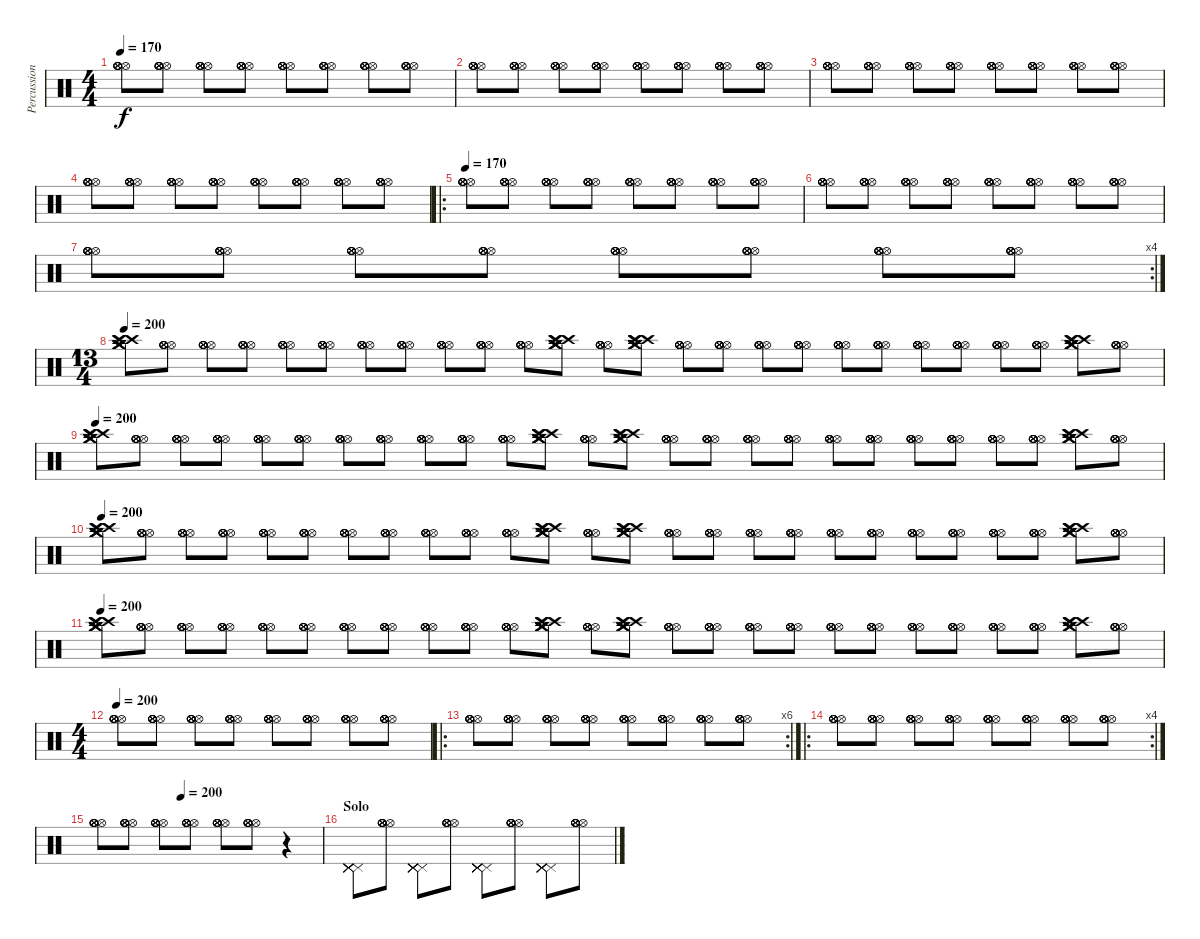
\track ("Percussion" "Percussion") {instrument percussion}
\staff {score}
\articulation defaults
\ts (4 4)
\tempo 170
\clef neutral
\ks c
("Hi-Hat (open)" "Hi-Hat (open)" "Hi-Hat (open)" "Hi-Hat (open)" "Hi-Hat (open)" "Hi-Hat (open)").8{dy f} ("Hi-Hat (open)" "Hi-Hat (open)" "Hi-Hat (open)" "Hi-Hat (open)" "Hi-Hat (open)" "Hi-Hat (open)").8 ("Hi-Hat (open)" "Hi-Hat (open)" "Hi-Hat (open)" "Hi-Hat (open)" "Hi-Hat (open)" "Hi-Hat (open)").8 ("Hi-Hat (open)" "Hi-Hat (open)" "Hi-Hat (open)" "Hi-Hat (open)" "Hi-Hat (open)" "Hi-Hat (open)").8 ("Hi-Hat (open)" "Hi-Hat (open)" "Hi-Hat (open)" "Hi-Hat (open)" "Hi-Hat (open)" "Hi-Hat (open)").8 ("Hi-Hat (open)" "Hi-Hat (open)" "Hi-Hat (open)" "Hi-Hat (open)" "Hi-Hat (open)" "Hi-Hat (open)").8 ("Hi-Hat (open)" "Hi-Hat (open)" "Hi-Hat (open)" "Hi-Hat (open)" "Hi-Hat (open)" "Hi-Hat (open)").8 ("Hi-Hat (open)" "Hi-Hat (open)" "Hi-Hat (open)" "Hi-Hat (open)" "Hi-Hat (open)" "Hi-Hat (open)").8 |
("Hi-Hat (open)" "Hi-Hat (open)" "Hi-Hat (open)" "Hi-Hat (open)" "Hi-Hat (open)" "Hi-Hat (open)").8 ("Hi-Hat (open)" "Hi-Hat (open)" "Hi-Hat (open)" "Hi-Hat (open)" "Hi-Hat (open)" "Hi-Hat (open)").8 ("Hi-Hat (open)" "Hi-Hat (open)" "Hi-Hat (open)" "Hi-Hat (open)" "Hi-Hat (open)" "Hi-Hat (open)").8 ("Hi-Hat (open)" "Hi-Hat (open)" "Hi-Hat (open)" "Hi-Hat (open)" "Hi-Hat (open)" "Hi-Hat (open)").8 ("Hi-Hat (open)" "Hi-Hat (open)" "Hi-Hat (open)" "Hi-Hat (open)" "Hi-Hat (open)" "Hi-Hat (open)").8 ("Hi-Hat (open)" "Hi-Hat (open)" "Hi-Hat (open)" "Hi-Hat (open)" "Hi-Hat (open)" "Hi-Hat (open)").8 ("Hi-Hat (open)" "Hi-Hat (open)" "Hi-Hat (open)" "Hi-Hat (open)" "Hi-Hat (open)" "Hi-Hat (open)").8 ("Hi-Hat (open)" "Hi-Hat (open)" "Hi-Hat (open)" "Hi-Hat (open)" "Hi-Hat (open)" "Hi-Hat (open)").8 |
("Hi-Hat (open)" "Hi-Hat (open)" "Hi-Hat (open)" "Hi-Hat (open)" "Hi-Hat (open)" "Hi-Hat (open)").8 ("Hi-Hat (open)" "Hi-Hat (open)" "Hi-Hat (open)" "Hi-Hat (open)" "Hi-Hat (open)" "Hi-Hat (open)").8 ("Hi-Hat (open)" "Hi-Hat (open)" "Hi-Hat (open)" "Hi-Hat (open)" "Hi-Hat (open)" "Hi-Hat (open)").8 ("Hi-Hat (open)" "Hi-Hat (open)" "Hi-Hat (open)" "Hi-Hat (open)" "Hi-Hat (open)" "Hi-Hat (open)").8 ("Hi-Hat (open)" "Hi-Hat (open)" "Hi-Hat (open)" "Hi-Hat (open)" "Hi-Hat (open)" "Hi-Hat (open)").8 ("Hi-Hat (open)" "Hi-Hat (open)" "Hi-Hat (open)" "Hi-Hat (open)" "Hi-Hat (open)" "Hi-Hat (open)").8 ("Hi-Hat (open)" "Hi-Hat (open)" "Hi-Hat (open)" "Hi-Hat (open)" "Hi-Hat (open)" "Hi-Hat (open)").8 ("Hi-Hat (open)" "Hi-Hat (open)" "Hi-Hat (open)" "Hi-Hat (open)" "Hi-Hat (open)" "Hi-Hat (open)").8 |
("Hi-Hat (open)" "Hi-Hat (open)" "Hi-Hat (open)" "Hi-Hat (open)" "Hi-Hat (open)" "Hi-Hat (open)").8 ("Hi-Hat (open)" "Hi-Hat (open)" "Hi-Hat (open)" "Hi-Hat (open)" "Hi-Hat (open)" "Hi-Hat (open)").8 ("Hi-Hat (open)" "Hi-Hat (open)" "Hi-Hat (open)" "Hi-Hat (open)" "Hi-Hat (open)" "Hi-Hat (open)").8 ("Hi-Hat (open)" "Hi-Hat (open)" "Hi-Hat (open)" "Hi-Hat (open)" "Hi-Hat (open)" "Hi-Hat (open)").8 ("Hi-Hat (open)" "Hi-Hat (open)" "Hi-Hat (open)" "Hi-Hat (open)" "Hi-Hat (open)" "Hi-Hat (open)").8 ("Hi-Hat (open)" "Hi-Hat (open)" "Hi-Hat (open)" "Hi-Hat (open)" "Hi-Hat (open)" "Hi-Hat (open)").8 ("Hi-Hat (open)" "Hi-Hat (open)" "Hi-Hat (open)" "Hi-Hat (open)" "Hi-Hat (open)" "Hi-Hat (open)").8 ("Hi-Hat (open)" "Hi-Hat (open)" "Hi-Hat (open)" "Hi-Hat (open)" "Hi-Hat (open)" "Hi-Hat (open)").8 |
\ro
\tempo 170
("Hi-Hat (open)" "Hi-Hat (open)" "Hi-Hat (open)" "Hi-Hat (open)" "Hi-Hat (open)" "Hi-Hat (open)").8 ("Hi-Hat (open)" "Hi-Hat (open)" "Hi-Hat (open)" "Hi-Hat (open)" "Hi-Hat (open)" "Hi-Hat (open)").8 ("Hi-Hat (open)" "Hi-Hat (open)" "Hi-Hat (open)" "Hi-Hat (open)" "Hi-Hat (open)" "Hi-Hat (open)").8 ("Hi-Hat (open)" "Hi-Hat (open)" "Hi-Hat (open)" "Hi-Hat (open)" "Hi-Hat (open)" "Hi-Hat (open)").8 ("Hi-Hat (open)" "Hi-Hat (open)" "Hi-Hat (open)" "Hi-Hat (open)" "Hi-Hat (open)" "Hi-Hat (open)").8 ("Hi-Hat (open)" "Hi-Hat (open)" "Hi-Hat (open)" "Hi-Hat (open)" "Hi-Hat (open)" "Hi-Hat (open)").8 ("Hi-Hat (open)" "Hi-Hat (open)" "Hi-Hat (open)" "Hi-Hat (open)" "Hi-Hat (open)" "Hi-Hat (open)").8 ("Hi-Hat (open)" "Hi-Hat (open)" "Hi-Hat (open)" "Hi-Hat (open)" "Hi-Hat (open)" "Hi-Hat (open)").8 |
("Hi-Hat (open)" "Hi-Hat (open)" "Hi-Hat (open)" "Hi-Hat (open)" "Hi-Hat (open)" "Hi-Hat (open)").8 ("Hi-Hat (open)" "Hi-Hat (open)" "Hi-Hat (open)" "Hi-Hat (open)" "Hi-Hat (open)" "Hi-Hat (open)").8 ("Hi-Hat (open)" "Hi-Hat (open)" "Hi-Hat (open)" "Hi-Hat (open)" "Hi-Hat (open)" "Hi-Hat (open)").8 ("Hi-Hat (open)" "Hi-Hat (open)" "Hi-Hat (open)" "Hi-Hat (open)" "Hi-Hat (open)" "Hi-Hat (open)").8 ("Hi-Hat (open)" "Hi-Hat (open)" "Hi-Hat (open)" "Hi-Hat (open)" "Hi-Hat (open)" "Hi-Hat (open)").8 ("Hi-Hat (open)" "Hi-Hat (open)" "Hi-Hat (open)" "Hi-Hat (open)" "Hi-Hat (open)" "Hi-Hat (open)").8 ("Hi-Hat (open)" "Hi-Hat (open)" "Hi-Hat (open)" "Hi-Hat (open)" "Hi-Hat (open)" "Hi-Hat (open)").8 ("Hi-Hat (open)" "Hi-Hat (open)" "Hi-Hat (open)" "Hi-Hat (open)" "Hi-Hat (open)" "Hi-Hat (open)").8 |
\rc 4
("Hi-Hat (open)" "Hi-Hat (open)" "Hi-Hat (open)" "Hi-Hat (open)" "Hi-Hat (open)" "Hi-Hat (open)").8 ("Hi-Hat (open)" "Hi-Hat (open)" "Hi-Hat (open)" "Hi-Hat (open)" "Hi-Hat (open)" "Hi-Hat (open)").8 ("Hi-Hat (open)" "Hi-Hat (open)" "Hi-Hat (open)" "Hi-Hat (open)" "Hi-Hat (open)" "Hi-Hat (open)").8 ("Hi-Hat (open)" "Hi-Hat (open)" "Hi-Hat (open)" "Hi-Hat (open)" "Hi-Hat (open)" "Hi-Hat (open)").8 ("Hi-Hat (open)" "Hi-Hat (open)" "Hi-Hat (open)" "Hi-Hat (open)" "Hi-Hat (open)" "Hi-Hat (open)").8 ("Hi-Hat (open)" "Hi-Hat (open)" "Hi-Hat (open)" "Hi-Hat (open)" "Hi-Hat (open)" "Hi-Hat (open)").8 ("Hi-Hat (open)" "Hi-Hat (open)" "Hi-Hat (open)" "Hi-Hat (open)" "Hi-Hat (open)" "Hi-Hat (open)").8 ("Hi-Hat (open)" "Hi-Hat (open)" "Hi-Hat (open)" "Hi-Hat (open)" "Hi-Hat (open)" "Hi-Hat (open)").8 |
\ts (13 4)
\tempo 200
("Crash high (hit)" "Crash high (hit)" "Crash high (hit)" "Crash medium (hit)" "Crash medium (hit)" "Crash medium (hit)").8 ("Hi-Hat (open)" "Hi-Hat (open)" "Hi-Hat (open)" "Hi-Hat (open)" "Hi-Hat (open)" "Hi-Hat (open)").8 ("Hi-Hat (open)" "Hi-Hat (open)" "Hi-Hat (open)" "Hi-Hat (open)" "Hi-Hat (open)" "Hi-Hat (open)").8 ("Hi-Hat (open)" "Hi-Hat (open)" "Hi-Hat (open)" "Hi-Hat (open)" "Hi-Hat (open)" "Hi-Hat (open)").8 ("Hi-Hat (open)" "Hi-Hat (open)" "Hi-Hat (open)" "Hi-Hat (open)" "Hi-Hat (open)" "Hi-Hat (open)").8 ("Hi-Hat (open)" "Hi-Hat (open)" "Hi-Hat (open)" "Hi-Hat (open)" "Hi-Hat (open)" "Hi-Hat (open)").8 ("Hi-Hat (open)" "Hi-Hat (open)" "Hi-Hat (open)" "Hi-Hat (open)" "Hi-Hat (open)" "Hi-Hat (open)").8 ("Hi-Hat (open)" "Hi-Hat (open)" "Hi-Hat (open)" "Hi-Hat (open)" "Hi-Hat (open)" "Hi-Hat (open)").8 ("Hi-Hat (open)" "Hi-Hat (open)" "Hi-Hat (open)" "Hi-Hat (open)" "Hi-Hat (open)" "Hi-Hat (open)").8 ("Hi-Hat (open)" "Hi-Hat (open)" "Hi-Hat (open)" "Hi-Hat (open)" "Hi-Hat (open)" "Hi-Hat (open)").8 ("Hi-Hat (open)" "Hi-Hat (open)" "Hi-Hat (open)" "Hi-Hat (open)" "Hi-Hat (open)" "Hi-Hat (open)").8 ("Crash high (hit)" "Crash high (hit)" "Crash high (hit)" "Crash medium (hit)" "Crash medium (hit)" "Crash medium (hit)").8 ("Hi-Hat (open)" "Hi-Hat (open)" "Hi-Hat (open)" "Hi-Hat (open)" "Hi-Hat (open)" "Hi-Hat (open)").8 ("Crash high (hit)" "Crash high (hit)" "Crash high (hit)" "Crash medium (hit)" "Crash medium (hit)" "Crash medium (hit)").8 ("Hi-Hat (open)" "Hi-Hat (open)" "Hi-Hat (open)" "Hi-Hat (open)" "Hi-Hat (open)" "Hi-Hat (open)").8 ("Hi-Hat (open)" "Hi-Hat (open)" "Hi-Hat (open)" "Hi-Hat (open)" "Hi-Hat (open)" "Hi-Hat (open)").8 ("Hi-Hat (open)" "Hi-Hat (open)" "Hi-Hat (open)" "Hi-Hat (open)" "Hi-Hat (open)" "Hi-Hat (open)").8 ("Hi-Hat (open)" "Hi-Hat (open)" "Hi-Hat (open)" "Hi-Hat (open)" "Hi-Hat (open)" "Hi-Hat (open)").8 ("Hi-Hat (open)" "Hi-Hat (open)" "Hi-Hat (open)" "Hi-Hat (open)" "Hi-Hat (open)" "Hi-Hat (open)").8 ("Hi-Hat (open)" "Hi-Hat (open)" "Hi-Hat (open)" "Hi-Hat (open)" "Hi-Hat (open)" "Hi-Hat (open)").8 ("Hi-Hat (open)" "Hi-Hat (open)" "Hi-Hat (open)" "Hi-Hat (open)" "Hi-Hat (open)" "Hi-Hat (open)").8 ("Hi-Hat (open)" "Hi-Hat (open)" "Hi-Hat (open)" "Hi-Hat (open)" "Hi-Hat (open)" "Hi-Hat (open)").8 ("Hi-Hat (open)" "Hi-Hat (open)" "Hi-Hat (open)" "Hi-Hat (open)" "Hi-Hat (open)" "Hi-Hat (open)").8 ("Hi-Hat (open)" "Hi-Hat (open)" "Hi-Hat (open)" "Hi-Hat (open)" "Hi-Hat (open)" "Hi-Hat (open)").8 ("Crash high (hit)" "Crash high (hit)" "Crash high (hit)" "Crash medium (hit)" "Crash medium (hit)" "Crash medium (hit)").8 ("Hi-Hat (open)" "Hi-Hat (open)" "Hi-Hat (open)" "Hi-Hat (open)" "Hi-Hat (open)" "Hi-Hat (open)").8 |
\tempo 200
("Crash high (hit)" "Crash high (hit)" "Crash high (hit)" "Crash medium (hit)" "Crash medium (hit)" "Crash medium (hit)").8 ("Hi-Hat (open)" "Hi-Hat (open)" "Hi-Hat (open)" "Hi-Hat (open)" "Hi-Hat (open)" "Hi-Hat (open)").8 ("Hi-Hat (open)" "Hi-Hat (open)" "Hi-Hat (open)" "Hi-Hat (open)" "Hi-Hat (open)" "Hi-Hat (open)").8 ("Hi-Hat (open)" "Hi-Hat (open)" "Hi-Hat (open)" "Hi-Hat (open)" "Hi-Hat (open)" "Hi-Hat (open)").8 ("Hi-Hat (open)" "Hi-Hat (open)" "Hi-Hat (open)" "Hi-Hat (open)" "Hi-Hat (open)" "Hi-Hat (open)").8 ("Hi-Hat (open)" "Hi-Hat (open)" "Hi-Hat (open)" "Hi-Hat (open)" "Hi-Hat (open)" "Hi-Hat (open)").8 ("Hi-Hat (open)" "Hi-Hat (open)" "Hi-Hat (open)" "Hi-Hat (open)" "Hi-Hat (open)" "Hi-Hat (open)").8 ("Hi-Hat (open)" "Hi-Hat (open)" "Hi-Hat (open)" "Hi-Hat (open)" "Hi-Hat (open)" "Hi-Hat (open)").8 ("Hi-Hat (open)" "Hi-Hat (open)" "Hi-Hat (open)" "Hi-Hat (open)" "Hi-Hat (open)" "Hi-Hat (open)").8 ("Hi-Hat (open)" "Hi-Hat (open)" "Hi-Hat (open)" "Hi-Hat (open)" "Hi-Hat (open)" "Hi-Hat (open)").8 ("Hi-Hat (open)" "Hi-Hat (open)" "Hi-Hat (open)" "Hi-Hat (open)" "Hi-Hat (open)" "Hi-Hat (open)").8 ("Crash high (hit)" "Crash high (hit)" "Crash high (hit)" "Crash medium (hit)" "Crash medium (hit)" "Crash medium (hit)").8 ("Hi-Hat (open)" "Hi-Hat (open)" "Hi-Hat (open)" "Hi-Hat (open)" "Hi-Hat (open)" "Hi-Hat (open)").8 ("Crash high (hit)" "Crash high (hit)" "Crash high (hit)" "Crash medium (hit)" "Crash medium (hit)" "Crash medium (hit)").8 ("Hi-Hat (open)" "Hi-Hat (open)" "Hi-Hat (open)" "Hi-Hat (open)" "Hi-Hat (open)" "Hi-Hat (open)").8 ("Hi-Hat (open)" "Hi-Hat (open)" "Hi-Hat (open)" "Hi-Hat (open)" "Hi-Hat (open)" "Hi-Hat (open)").8 ("Hi-Hat (open)" "Hi-Hat (open)" "Hi-Hat (open)" "Hi-Hat (open)" "Hi-Hat (open)" "Hi-Hat (open)").8 ("Hi-Hat (open)" "Hi-Hat (open)" "Hi-Hat (open)" "Hi-Hat (open)" "Hi-Hat (open)" "Hi-Hat (open)").8 ("Hi-Hat (open)" "Hi-Hat (open)" "Hi-Hat (open)" "Hi-Hat (open)" "Hi-Hat (open)" "Hi-Hat (open)").8 ("Hi-Hat (open)" "Hi-Hat (open)" "Hi-Hat (open)" "Hi-Hat (open)" "Hi-Hat (open)" "Hi-Hat (open)").8 ("Hi-Hat (open)" "Hi-Hat (open)" "Hi-Hat (open)" "Hi-Hat (open)" "Hi-Hat (open)" "Hi-Hat (open)").8 ("Hi-Hat (open)" "Hi-Hat (open)" "Hi-Hat (open)" "Hi-Hat (open)" "Hi-Hat (open)" "Hi-Hat (open)").8 ("Hi-Hat (open)" "Hi-Hat (open)" "Hi-Hat (open)" "Hi-Hat (open)" "Hi-Hat (open)" "Hi-Hat (open)").8 ("Hi-Hat (open)" "Hi-Hat (open)" "Hi-Hat (open)" "Hi-Hat (open)" "Hi-Hat (open)" "Hi-Hat (open)").8 ("Crash high (hit)" "Crash high (hit)" "Crash high (hit)" "Crash medium (hit)" "Crash medium (hit)" "Crash medium (hit)").8 ("Hi-Hat (open)" "Hi-Hat (open)" "Hi-Hat (open)" "Hi-Hat (open)" "Hi-Hat (open)" "Hi-Hat (open)").8 |
\tempo 200
("Crash high (hit)" "Crash high (hit)" "Crash high (hit)" "Crash medium (hit)" "Crash medium (hit)" "Crash medium (hit)").8 ("Hi-Hat (open)" "Hi-Hat (open)" "Hi-Hat (open)" "Hi-Hat (open)" "Hi-Hat (open)" "Hi-Hat (open)").8 ("Hi-Hat (open)" "Hi-Hat (open)" "Hi-Hat (open)" "Hi-Hat (open)" "Hi-Hat (open)" "Hi-Hat (open)").8 ("Hi-Hat (open)" "Hi-Hat (open)" "Hi-Hat (open)" "Hi-Hat (open)" "Hi-Hat (open)" "Hi-Hat (open)").8 ("Hi-Hat (open)" "Hi-Hat (open)" "Hi-Hat (open)" "Hi-Hat (open)" "Hi-Hat (open)" "Hi-Hat (open)").8 ("Hi-Hat (open)" "Hi-Hat (open)" "Hi-Hat (open)" "Hi-Hat (open)" "Hi-Hat (open)" "Hi-Hat (open)").8 ("Hi-Hat (open)" "Hi-Hat (open)" "Hi-Hat (open)" "Hi-Hat (open)" "Hi-Hat (open)" "Hi-Hat (open)").8 ("Hi-Hat (open)" "Hi-Hat (open)" "Hi-Hat (open)" "Hi-Hat (open)" "Hi-Hat (open)" "Hi-Hat (open)").8 ("Hi-Hat (open)" "Hi-Hat (open)" "Hi-Hat (open)" "Hi-Hat (open)" "Hi-Hat (open)" "Hi-Hat (open)").8 ("Hi-Hat (open)" "Hi-Hat (open)" "Hi-Hat (open)" "Hi-Hat (open)" "Hi-Hat (open)" "Hi-Hat (open)").8 ("Hi-Hat (open)" "Hi-Hat (open)" "Hi-Hat (open)" "Hi-Hat (open)" "Hi-Hat (open)" "Hi-Hat (open)").8 ("Crash high (hit)" "Crash high (hit)" "Crash high (hit)" "Crash medium (hit)" "Crash medium (hit)" "Crash medium (hit)").8 ("Hi-Hat (open)" "Hi-Hat (open)" "Hi-Hat (open)" "Hi-Hat (open)" "Hi-Hat (open)" "Hi-Hat (open)").8 ("Crash high (hit)" "Crash high (hit)" "Crash high (hit)" "Crash medium (hit)" "Crash medium (hit)" "Crash medium (hit)").8 ("Hi-Hat (open)" "Hi-Hat (open)" "Hi-Hat (open)" "Hi-Hat (open)" "Hi-Hat (open)" "Hi-Hat (open)").8 ("Hi-Hat (open)" "Hi-Hat (open)" "Hi-Hat (open)" "Hi-Hat (open)" "Hi-Hat (open)" "Hi-Hat (open)").8 ("Hi-Hat (open)" "Hi-Hat (open)" "Hi-Hat (open)" "Hi-Hat (open)" "Hi-Hat (open)" "Hi-Hat (open)").8 ("Hi-Hat (open)" "Hi-Hat (open)" "Hi-Hat (open)" "Hi-Hat (open)" "Hi-Hat (open)" "Hi-Hat (open)").8 ("Hi-Hat (open)" "Hi-Hat (open)" "Hi-Hat (open)" "Hi-Hat (open)" "Hi-Hat (open)" "Hi-Hat (open)").8 ("Hi-Hat (open)" "Hi-Hat (open)" "Hi-Hat (open)" "Hi-Hat (open)" "Hi-Hat (open)" "Hi-Hat (open)").8 ("Hi-Hat (open)" "Hi-Hat (open)" "Hi-Hat (open)" "Hi-Hat (open)" "Hi-Hat (open)" "Hi-Hat (open)").8 ("Hi-Hat (open)" "Hi-Hat (open)" "Hi-Hat (open)" "Hi-Hat (open)" "Hi-Hat (open)" "Hi-Hat (open)").8 ("Hi-Hat (open)" "Hi-Hat (open)" "Hi-Hat (open)" "Hi-Hat (open)" "Hi-Hat (open)" "Hi-Hat (open)").8 ("Hi-Hat (open)" "Hi-Hat (open)" "Hi-Hat (open)" "Hi-Hat (open)" "Hi-Hat (open)" "Hi-Hat (open)").8 ("Crash high (hit)" "Crash high (hit)" "Crash high (hit)" "Crash medium (hit)" "Crash medium (hit)" "Crash medium (hit)").8 ("Hi-Hat (open)" "Hi-Hat (open)" "Hi-Hat (open)" "Hi-Hat (open)" "Hi-Hat (open)" "Hi-Hat (open)").8 |
\tempo 200
("Crash high (hit)" "Crash high (hit)" "Crash high (hit)" "Crash medium (hit)" "Crash medium (hit)" "Crash medium (hit)").8 ("Hi-Hat (open)" "Hi-Hat (open)" "Hi-Hat (open)" "Hi-Hat (open)" "Hi-Hat (open)" "Hi-Hat (open)").8 ("Hi-Hat (open)" "Hi-Hat (open)" "Hi-Hat (open)" "Hi-Hat (open)" "Hi-Hat (open)" "Hi-Hat (open)").8 ("Hi-Hat (open)" "Hi-Hat (open)" "Hi-Hat (open)" "Hi-Hat (open)" "Hi-Hat (open)" "Hi-Hat (open)").8 ("Hi-Hat (open)" "Hi-Hat (open)" "Hi-Hat (open)" "Hi-Hat (open)" "Hi-Hat (open)" "Hi-Hat (open)").8 ("Hi-Hat (open)" "Hi-Hat (open)" "Hi-Hat (open)" "Hi-Hat (open)" "Hi-Hat (open)" "Hi-Hat (open)").8 ("Hi-Hat (open)" "Hi-Hat (open)" "Hi-Hat (open)" "Hi-Hat (open)" "Hi-Hat (open)" "Hi-Hat (open)").8 ("Hi-Hat (open)" "Hi-Hat (open)" "Hi-Hat (open)" "Hi-Hat (open)" "Hi-Hat (open)" "Hi-Hat (open)").8 ("Hi-Hat (open)" "Hi-Hat (open)" "Hi-Hat (open)" "Hi-Hat (open)" "Hi-Hat (open)" "Hi-Hat (open)").8 ("Hi-Hat (open)" "Hi-Hat (open)" "Hi-Hat (open)" "Hi-Hat (open)" "Hi-Hat (open)" "Hi-Hat (open)").8 ("Hi-Hat (open)" "Hi-Hat (open)" "Hi-Hat (open)" "Hi-Hat (open)" "Hi-Hat (open)" "Hi-Hat (open)").8 ("Crash high (hit)" "Crash high (hit)" "Crash high (hit)" "Crash medium (hit)" "Crash medium (hit)" "Crash medium (hit)").8 ("Hi-Hat (open)" "Hi-Hat (open)" "Hi-Hat (open)" "Hi-Hat (open)" "Hi-Hat (open)" "Hi-Hat (open)").8 ("Crash high (hit)" "Crash high (hit)" "Crash high (hit)" "Crash medium (hit)" "Crash medium (hit)" "Crash medium (hit)").8 ("Hi-Hat (open)" "Hi-Hat (open)" "Hi-Hat (open)" "Hi-Hat (open)" "Hi-Hat (open)" "Hi-Hat (open)").8 ("Hi-Hat (open)" "Hi-Hat (open)" "Hi-Hat (open)" "Hi-Hat (open)" "Hi-Hat (open)" "Hi-Hat (open)").8 ("Hi-Hat (open)" "Hi-Hat (open)" "Hi-Hat (open)" "Hi-Hat (open)" "Hi-Hat (open)" "Hi-Hat (open)").8 ("Hi-Hat (open)" "Hi-Hat (open)" "Hi-Hat (open)" "Hi-Hat (open)" "Hi-Hat (open)" "Hi-Hat (open)").8 ("Hi-Hat (open)" "Hi-Hat (open)" "Hi-Hat (open)" "Hi-Hat (open)" "Hi-Hat (open)" "Hi-Hat (open)").8 ("Hi-Hat (open)" "Hi-Hat (open)" "Hi-Hat (open)" "Hi-Hat (open)" "Hi-Hat (open)" "Hi-Hat (open)").8 ("Hi-Hat (open)" "Hi-Hat (open)" "Hi-Hat (open)" "Hi-Hat (open)" "Hi-Hat (open)" "Hi-Hat (open)").8 ("Hi-Hat (open)" "Hi-Hat (open)" "Hi-Hat (open)" "Hi-Hat (open)" "Hi-Hat (open)" "Hi-Hat (open)").8 ("Hi-Hat (open)" "Hi-Hat (open)" "Hi-Hat (open)" "Hi-Hat (open)" "Hi-Hat (open)" "Hi-Hat (open)").8 ("Hi-Hat (open)" "Hi-Hat (open)" "Hi-Hat (open)" "Hi-Hat (open)" "Hi-Hat (open)" "Hi-Hat (open)").8 ("Crash high (hit)" "Crash high (hit)" "Crash high (hit)" "Crash medium (hit)" "Crash medium (hit)" "Crash medium (hit)").8 ("Hi-Hat (open)" "Hi-Hat (open)" "Hi-Hat (open)" "Hi-Hat (open)" "Hi-Hat (open)" "Hi-Hat (open)").8 |
\ts (4 4)
\tempo 200
("Hi-Hat (open)" "Hi-Hat (open)" "Hi-Hat (open)" "Hi-Hat (open)" "Hi-Hat (open)" "Hi-Hat (open)").8 ("Hi-Hat (open)" "Hi-Hat (open)" "Hi-Hat (open)" "Hi-Hat (open)" "Hi-Hat (open)" "Hi-Hat (open)").8 ("Hi-Hat (open)" "Hi-Hat (open)" "Hi-Hat (open)" "Hi-Hat (open)" "Hi-Hat (open)" "Hi-Hat (open)").8 ("Hi-Hat (open)" "Hi-Hat (open)" "Hi-Hat (open)" "Hi-Hat (open)" "Hi-Hat (open)" "Hi-Hat (open)").8 ("Hi-Hat (open)" "Hi-Hat (open)" "Hi-Hat (open)" "Hi-Hat (open)" "Hi-Hat (open)" "Hi-Hat (open)").8 ("Hi-Hat (open)" "Hi-Hat (open)" "Hi-Hat (open)" "Hi-Hat (open)" "Hi-Hat (open)" "Hi-Hat (open)").8 ("Hi-Hat (open)" "Hi-Hat (open)" "Hi-Hat (open)" "Hi-Hat (open)" "Hi-Hat (open)" "Hi-Hat (open)").8 ("Hi-Hat (open)" "Hi-Hat (open)" "Hi-Hat (open)" "Hi-Hat (open)" "Hi-Hat (open)" "Hi-Hat (open)").8 |
\ro
\rc 6
("Hi-Hat (open)" "Hi-Hat (open)" "Hi-Hat (open)" "Hi-Hat (open)" "Hi-Hat (open)" "Hi-Hat (open)").8 ("Hi-Hat (open)" "Hi-Hat (open)" "Hi-Hat (open)" "Hi-Hat (open)" "Hi-Hat (open)" "Hi-Hat (open)").8 ("Hi-Hat (open)" "Hi-Hat (open)" "Hi-Hat (open)" "Hi-Hat (open)" "Hi-Hat (open)" "Hi-Hat (open)").8 ("Hi-Hat (open)" "Hi-Hat (open)" "Hi-Hat (open)" "Hi-Hat (open)" "Hi-Hat (open)" "Hi-Hat (open)").8 ("Hi-Hat (open)" "Hi-Hat (open)" "Hi-Hat (open)" "Hi-Hat (open)" "Hi-Hat (open)" "Hi-Hat (open)").8 ("Hi-Hat (open)" "Hi-Hat (open)" "Hi-Hat (open)" "Hi-Hat (open)" "Hi-Hat (open)" "Hi-Hat (open)").8 ("Hi-Hat (open)" "Hi-Hat (open)" "Hi-Hat (open)" "Hi-Hat (open)" "Hi-Hat (open)" "Hi-Hat (open)").8 ("Hi-Hat (open)" "Hi-Hat (open)" "Hi-Hat (open)" "Hi-Hat (open)" "Hi-Hat (open)" "Hi-Hat (open)").8 |
\ro
\rc 4
("Hi-Hat (open)" "Hi-Hat (open)" "Hi-Hat (open)" "Hi-Hat (open)" "Hi-Hat (open)" "Hi-Hat (open)").8 ("Hi-Hat (open)" "Hi-Hat (open)" "Hi-Hat (open)" "Hi-Hat (open)" "Hi-Hat (open)" "Hi-Hat (open)").8 ("Hi-Hat (open)" "Hi-Hat (open)" "Hi-Hat (open)" "Hi-Hat (open)" "Hi-Hat (open)" "Hi-Hat (open)").8 ("Hi-Hat (open)" "Hi-Hat (open)" "Hi-Hat (open)" "Hi-Hat (open)" "Hi-Hat (open)" "Hi-Hat (open)").8 ("Hi-Hat (open)" "Hi-Hat (open)" "Hi-Hat (open)" "Hi-Hat (open)" "Hi-Hat (open)" "Hi-Hat (open)").8 ("Hi-Hat (open)" "Hi-Hat (open)" "Hi-Hat (open)" "Hi-Hat (open)" "Hi-Hat (open)" "Hi-Hat (open)").8 ("Hi-Hat (open)" "Hi-Hat (open)" "Hi-Hat (open)" "Hi-Hat (open)" "Hi-Hat (open)" "Hi-Hat (open)").8 ("Hi-Hat (open)" "Hi-Hat (open)" "Hi-Hat (open)" "Hi-Hat (open)" "Hi-Hat (open)" "Hi-Hat (open)").8 |
\tempo (200 0.375)
("Hi-Hat (open)" "Hi-Hat (open)" "Hi-Hat (open)" "Hi-Hat (open)" "Hi-Hat (open)" "Hi-Hat (open)").8 ("Hi-Hat (open)" "Hi-Hat (open)" "Hi-Hat (open)" "Hi-Hat (open)" "Hi-Hat (open)" "Hi-Hat (open)").8 ("Hi-Hat (open)" "Hi-Hat (open)" "Hi-Hat (open)" "Hi-Hat (open)" "Hi-Hat (open)" "Hi-Hat (open)").8 ("Hi-Hat (open)" "Hi-Hat (open)" "Hi-Hat (open)" "Hi-Hat (open)" "Hi-Hat (open)" "Hi-Hat (open)").8 ("Hi-Hat (open)" "Hi-Hat (open)" "Hi-Hat (open)" "Hi-Hat (open)" "Hi-Hat (open)" "Hi-Hat (open)").8 ("Hi-Hat (open)" "Hi-Hat (open)" "Hi-Hat (open)" "Hi-Hat (open)" "Hi-Hat (open)" "Hi-Hat (open)").8 r.4 |
\section ("" "Solo")
("Pedal Hi-Hat (hit)" "Pedal Hi-Hat (hit)" "Pedal Hi-Hat (hit)" "Pedal Hi-Hat (hit)" "Pedal Hi-Hat (hit)" "Pedal Hi-Hat (hit)").8 ("Hi-Hat (open)" "Hi-Hat (open)" "Hi-Hat (open)" "Hi-Hat (open)" "Hi-Hat (open)" "Hi-Hat (open)").8 ("Pedal Hi-Hat (hit)" "Pedal Hi-Hat (hit)" "Pedal Hi-Hat (hit)" "Pedal Hi-Hat (hit)" "Pedal Hi-Hat (hit)" "Pedal Hi-Hat (hit)").8 ("Hi-Hat (open)" "Hi-Hat (open)" "Hi-Hat (open)" "Hi-Hat (open)" "Hi-Hat (open)" "Hi-Hat (open)").8 ("Pedal Hi-Hat (hit)" "Pedal Hi-Hat (hit)" "Pedal Hi-Hat (hit)" "Pedal Hi-Hat (hit)" "Pedal Hi-Hat (hit)" "Pedal Hi-Hat (hit)").8 ("Hi-Hat (open)" "Hi-Hat (open)" "Hi-Hat (open)" "Hi-Hat (open)" "Hi-Hat (open)" "Hi-Hat (open)").8 ("Pedal Hi-Hat (hit)" "Pedal Hi-Hat (hit)" "Pedal Hi-Hat (hit)" "Pedal Hi-Hat (hit)" "Pedal Hi-Hat (hit)" "Pedal Hi-Hat (hit)").8 ("Hi-Hat (open)" "Hi-Hat (open)" "Hi-Hat (open)" "Hi-Hat (open)" "Hi-Hat (open)" "Hi-Hat (open)").8
